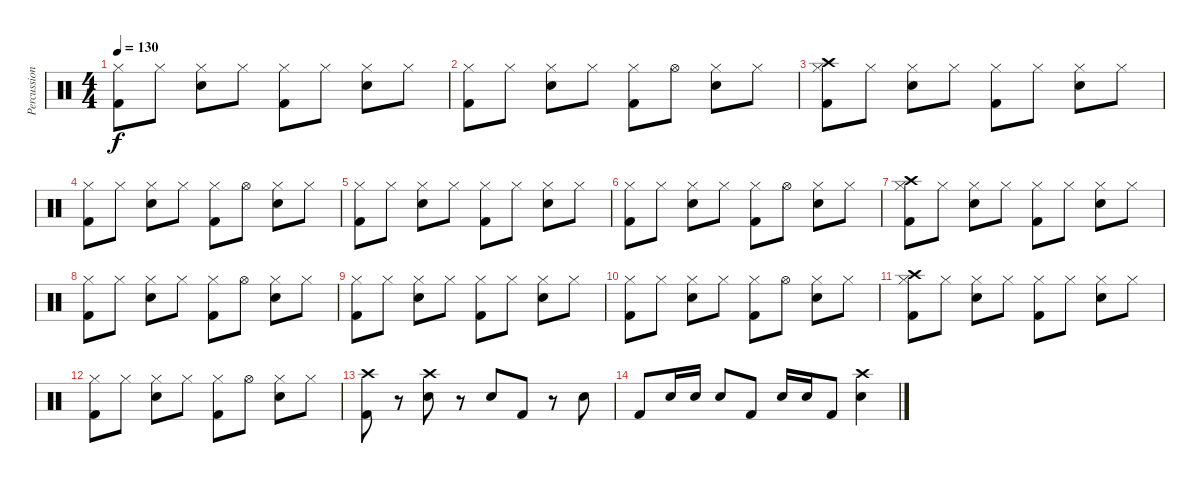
\track ("Percussion" "Percussion") {instrument percussion}
\staff {score}
\articulation defaults
\ts (4 4)
\tempo 130
\clef neutral
\ks c
("Hi-Hat (closed)" "Kick (hit) 2").8{dy f} "Hi-Hat (closed)".8 ("Hi-Hat (closed)" "Electric Snare (hit)").8 "Hi-Hat (closed)".8 ("Hi-Hat (closed)" "Kick (hit) 2").8 "Hi-Hat (closed)".8 ("Hi-Hat (closed)" "Electric Snare (hit)").8 "Hi-Hat (closed)".8 |
("Hi-Hat (closed)" "Kick (hit) 2").8 "Hi-Hat (closed)".8 ("Hi-Hat (closed)" "Electric Snare (hit)").8 "Hi-Hat (closed)".8 ("Hi-Hat (closed)" "Kick (hit) 2").8 "Hi-Hat (open)".8 ("Hi-Hat (closed)" "Electric Snare (hit)").8 "Hi-Hat (closed)".8 |
("Crash high (hit)" "Hi-Hat (closed)" "Kick (hit) 2").8 "Hi-Hat (closed)".8 ("Hi-Hat (closed)" "Electric Snare (hit)").8 "Hi-Hat (closed)".8 ("Hi-Hat (closed)" "Kick (hit) 2").8 "Hi-Hat (closed)".8 ("Hi-Hat (closed)" "Electric Snare (hit)").8 "Hi-Hat (closed)".8 |
("Hi-Hat (closed)" "Kick (hit) 2").8 "Hi-Hat (closed)".8 ("Hi-Hat (closed)" "Electric Snare (hit)").8 "Hi-Hat (closed)".8 ("Hi-Hat (closed)" "Kick (hit) 2").8 "Hi-Hat (open)".8 ("Hi-Hat (closed)" "Electric Snare (hit)").8 "Hi-Hat (closed)".8 |
("Hi-Hat (closed)" "Kick (hit) 2").8 "Hi-Hat (closed)".8 ("Hi-Hat (closed)" "Electric Snare (hit)").8 "Hi-Hat (closed)".8 ("Hi-Hat (closed)" "Kick (hit) 2").8 "Hi-Hat (closed)".8 ("Hi-Hat (closed)" "Electric Snare (hit)").8 "Hi-Hat (closed)".8 |
("Hi-Hat (closed)" "Kick (hit) 2").8 "Hi-Hat (closed)".8 ("Hi-Hat (closed)" "Electric Snare (hit)").8 "Hi-Hat (closed)".8 ("Hi-Hat (closed)" "Kick (hit) 2").8 "Hi-Hat (open)".8 ("Hi-Hat (closed)" "Electric Snare (hit)").8 "Hi-Hat (closed)".8 |
("Crash high (hit)" "Hi-Hat (closed)" "Kick (hit) 2").8 "Hi-Hat (closed)".8 ("Hi-Hat (closed)" "Electric Snare (hit)").8 "Hi-Hat (closed)".8 ("Hi-Hat (closed)" "Kick (hit) 2").8 "Hi-Hat (closed)".8 ("Hi-Hat (closed)" "Electric Snare (hit)").8 "Hi-Hat (closed)".8 |
("Hi-Hat (closed)" "Kick (hit) 2").8 "Hi-Hat (closed)".8 ("Hi-Hat (closed)" "Electric Snare (hit)").8 "Hi-Hat (closed)".8 ("Hi-Hat (closed)" "Kick (hit) 2").8 "Hi-Hat (open)".8 ("Hi-Hat (closed)" "Electric Snare (hit)").8 "Hi-Hat (closed)".8 |
("Hi-Hat (closed)" "Kick (hit) 2").8 "Hi-Hat (closed)".8 ("Hi-Hat (closed)" "Electric Snare (hit)").8 "Hi-Hat (closed)".8 ("Hi-Hat (closed)" "Kick (hit) 2").8 "Hi-Hat (closed)".8 ("Hi-Hat (closed)" "Electric Snare (hit)").8 "Hi-Hat (closed)".8 |
("Hi-Hat (closed)" "Kick (hit) 2").8 "Hi-Hat (closed)".8 ("Hi-Hat (closed)" "Electric Snare (hit)").8 "Hi-Hat (closed)".8 ("Hi-Hat (closed)" "Kick (hit) 2").8 "Hi-Hat (open)".8 ("Hi-Hat (closed)" "Electric Snare (hit)").8 "Hi-Hat (closed)".8 |
("Crash high (hit)" "Hi-Hat (closed)" "Kick (hit) 2").8 "Hi-Hat (closed)".8 ("Hi-Hat (closed)" "Electric Snare (hit)").8 "Hi-Hat (closed)".8 ("Hi-Hat (closed)" "Kick (hit) 2").8 "Hi-Hat (closed)".8 ("Hi-Hat (closed)" "Electric Snare (hit)").8 "Hi-Hat (closed)".8 |
("Hi-Hat (closed)" "Kick (hit) 2").8 "Hi-Hat (closed)".8 ("Hi-Hat (closed)" "Electric Snare (hit)").8 "Hi-Hat (closed)".8 ("Hi-Hat (closed)" "Kick (hit) 2").8 "Hi-Hat (open)".8 ("Hi-Hat (closed)" "Electric Snare (hit)").8 "Hi-Hat (closed)".8 |
("Crash high (hit)" "Kick (hit) 2").8 r.8 ("Crash high (hit)" "Electric Snare (hit)").8 r.8 "Electric Snare (hit)".8 "Kick (hit) 2".8 r.8 "Electric Snare (hit)".8 |
"Kick (hit) 2".8 "Electric Snare (hit)".16 "Electric Snare (hit)".16 "Electric Snare (hit)".8 "Kick (hit) 2".8 "Electric Snare (hit)".16 "Electric Snare (hit)".16 "Kick (hit) 2".8 ("Crash high (hit)" "Electric Snare (hit)").4
